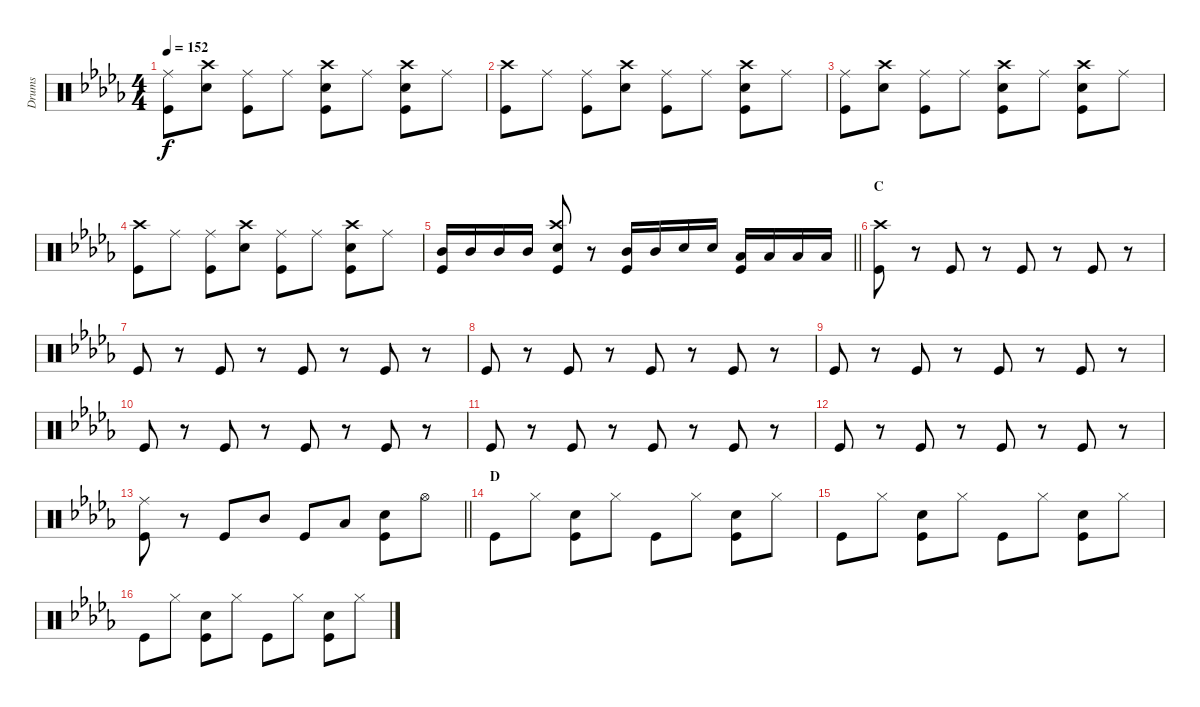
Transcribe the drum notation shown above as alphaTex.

\track ("Drums" "Drums") {instrument percussion}
\staff {score}
\articulation defaults
\ts (4 4)
\tempo 152
\clef neutral
\ks db
("Ride (middle)" "Kick (hit)").8{dy f} ("Crash high (hit)" "Snare (hit) 2").8 ("Ride (middle)" "Kick (hit)").8 "Ride (middle)".8 ("Crash high (hit)" "Snare (hit) 2" "Kick (hit)").8 "Ride (middle)".8 ("Crash high (hit)" "Snare (hit) 2" "Kick (hit)").8 "Ride (middle)".8 |
("Crash high (hit)" "Kick (hit)").8 "Ride (middle)".8 ("Ride (middle)" "Kick (hit)").8 ("Crash high (hit)" "Snare (hit) 2").8 ("Ride (middle)" "Kick (hit)").8 "Ride (middle)".8 ("Crash high (hit)" "Snare (hit) 2" "Kick (hit)").8 "Ride (middle)".8 |
("Ride (middle)" "Kick (hit)").8 ("Crash high (hit)" "Snare (hit) 2").8 ("Ride (middle)" "Kick (hit)").8 "Ride (middle)".8 ("Crash high (hit)" "Snare (hit) 2" "Kick (hit)").8 "Ride (middle)".8 ("Crash high (hit)" "Snare (hit) 2" "Kick (hit)").8 "Ride (middle)".8 |
("Crash high (hit)" "Kick (hit)").8 "Ride (middle)".8 ("Ride (middle)" "Kick (hit)").8 ("Crash high (hit)" "Snare (hit) 2").8 ("Ride (middle)" "Kick (hit)").8 "Ride (middle)".8 ("Crash high (hit)" "Snare (hit) 2" "Kick (hit)").8 "Ride (middle)".8 |
\barLineRight lightlight
("Mid Tom (hit)" "Kick (hit)").16 "Mid Tom (hit)".16 "Mid Tom (hit)".16 "Mid Tom (hit)".16 ("Crash high (hit)" "Snare (hit) 2" "Kick (hit)").8 r.8 ("Mid Tom (hit)" "Kick (hit)").16 "Mid Tom (hit)".16 "Snare (hit) 2".16 "Snare (hit) 2".16 ("Low Tom (hit)" "Kick (hit)").16 "Low Tom (hit)".16 "Low Tom (hit)".16 "Low Tom (hit)".16 |
\section ("" "C")
("Crash high (hit)" "Kick (hit)").8 r.8 "Kick (hit)".8 r.8 "Kick (hit)".8 r.8 "Kick (hit)".8 r.8 |
"Kick (hit)".8 r.8 "Kick (hit)".8 r.8 "Kick (hit)".8 r.8 "Kick (hit)".8 r.8 |
"Kick (hit)".8 r.8 "Kick (hit)".8 r.8 "Kick (hit)".8 r.8 "Kick (hit)".8 r.8 |
"Kick (hit)".8 r.8 "Kick (hit)".8 r.8 "Kick (hit)".8 r.8 "Kick (hit)".8 r.8 |
"Kick (hit)".8 r.8 "Kick (hit)".8 r.8 "Kick (hit)".8 r.8 "Kick (hit)".8 r.8 |
"Kick (hit)".8 r.8 "Kick (hit)".8 r.8 "Kick (hit)".8 r.8 "Kick (hit)".8 r.8 |
"Kick (hit)".8 r.8 "Kick (hit)".8 r.8 "Kick (hit)".8 r.8 "Kick (hit)".8 r.8 |
\barLineRight lightlight
("Ride (middle)" "Kick (hit)").8 r.8 "Kick (hit)".8 "Mid Tom (hit)".8 "Kick (hit)".8 "Low Tom (hit)".8 ("Snare (hit) 2" "Kick (hit)").8 "Hi-Hat (open)".8 |
\section ("" "D")
"Kick (hit)".8 "Hi-Hat (closed)".8 ("Snare (hit) 2" "Kick (hit)").8 "Hi-Hat (closed)".8 "Kick (hit)".8 "Hi-Hat (closed)".8 ("Snare (hit) 2" "Kick (hit)").8 "Hi-Hat (closed)".8 |
"Kick (hit)".8 "Hi-Hat (closed)".8 ("Snare (hit) 2" "Kick (hit)").8 "Hi-Hat (closed)".8 "Kick (hit)".8 "Hi-Hat (closed)".8 ("Snare (hit) 2" "Kick (hit)").8 "Hi-Hat (closed)".8 |
"Kick (hit)".8 "Hi-Hat (closed)".8 ("Snare (hit) 2" "Kick (hit)").8 "Hi-Hat (closed)".8 "Kick (hit)".8 "Hi-Hat (closed)".8 ("Snare (hit) 2" "Kick (hit)").8 "Hi-Hat (closed)".8
